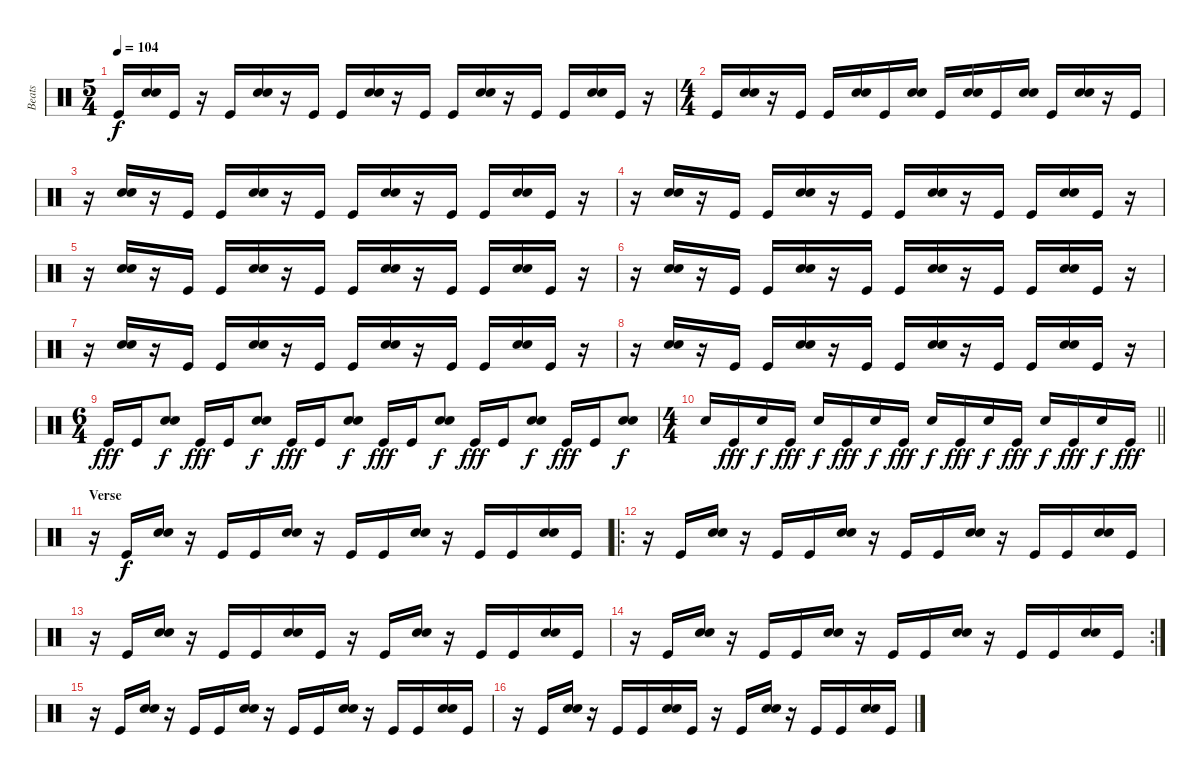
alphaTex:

\track ("Beats" "Beats") {instrument percussion}
\staff {score}
\articulation defaults
\ts (5 4)
\tempo 104
\clef neutral
\ks c "Kick (hit)".16{dy f}
("Snare (hit) 2" "Snare (hit) 2").16 "Kick (hit)".16 r.16 "Kick (hit)".16 ("Snare (hit) 2" "Snare (hit) 2").16 r.16 "Kick (hit)".16 "Kick (hit)".16 ("Snare (hit) 2" "Snare (hit) 2").16 r.16 "Kick (hit)".16 "Kick (hit)".16 ("Snare (hit) 2" "Snare (hit) 2").16 r.16 "Kick (hit)".16 "Kick (hit)".16 ("Snare (hit) 2" "Snare (hit) 2").16 "Kick (hit)".16 r.16 |
\ts (4 4)
"Kick (hit)".16 ("Snare (hit) 2" "Snare (hit) 2").16 r.16 "Kick (hit)".16 "Kick (hit)".16 ("Snare (hit) 2" "Snare (hit) 2").16 "Kick (hit)".16 ("Snare (hit) 2" "Snare (hit) 2").16 "Kick (hit)".16 ("Snare (hit) 2" "Snare (hit) 2").16 "Kick (hit)".16 ("Snare (hit) 2" "Snare (hit) 2").16 "Kick (hit)".16 ("Snare (hit) 2" "Snare (hit) 2").16 r.16 "Kick (hit)".16 |
r.16 ("Snare (hit) 2" "Snare (hit) 2").16 r.16 "Kick (hit)".16 "Kick (hit)".16 ("Snare (hit) 2" "Snare (hit) 2").16 r.16 "Kick (hit)".16 "Kick (hit)".16 ("Snare (hit) 2" "Snare (hit) 2").16 r.16 "Kick (hit)".16 "Kick (hit)".16 ("Snare (hit) 2" "Snare (hit) 2").16 "Kick (hit)".16 r.16 |
r.16 ("Snare (hit) 2" "Snare (hit) 2").16 r.16 "Kick (hit)".16 "Kick (hit)".16 ("Snare (hit) 2" "Snare (hit) 2").16 r.16 "Kick (hit)".16 "Kick (hit)".16 ("Snare (hit) 2" "Snare (hit) 2").16 r.16 "Kick (hit)".16 "Kick (hit)".16 ("Snare (hit) 2" "Snare (hit) 2").16 "Kick (hit)".16 r.16 |
r.16 ("Snare (hit) 2" "Snare (hit) 2").16 r.16 "Kick (hit)".16 "Kick (hit)".16 ("Snare (hit) 2" "Snare (hit) 2").16 r.16 "Kick (hit)".16 "Kick (hit)".16 ("Snare (hit) 2" "Snare (hit) 2").16 r.16 "Kick (hit)".16 "Kick (hit)".16 ("Snare (hit) 2" "Snare (hit) 2").16 "Kick (hit)".16 r.16 |
r.16 ("Snare (hit) 2" "Snare (hit) 2").16 r.16 "Kick (hit)".16 "Kick (hit)".16 ("Snare (hit) 2" "Snare (hit) 2").16 r.16 "Kick (hit)".16 "Kick (hit)".16 ("Snare (hit) 2" "Snare (hit) 2").16 r.16 "Kick (hit)".16 "Kick (hit)".16 ("Snare (hit) 2" "Snare (hit) 2").16 "Kick (hit)".16 r.16 |
r.16 ("Snare (hit) 2" "Snare (hit) 2").16 r.16 "Kick (hit)".16 "Kick (hit)".16 ("Snare (hit) 2" "Snare (hit) 2").16 r.16 "Kick (hit)".16 "Kick (hit)".16 ("Snare (hit) 2" "Snare (hit) 2").16 r.16 "Kick (hit)".16 "Kick (hit)".16 ("Snare (hit) 2" "Snare (hit) 2").16 "Kick (hit)".16 r.16 |
r.16 ("Snare (hit) 2" "Snare (hit) 2").16 r.16 "Kick (hit)".16 "Kick (hit)".16 ("Snare (hit) 2" "Snare (hit) 2").16 r.16 "Kick (hit)".16 "Kick (hit)".16 ("Snare (hit) 2" "Snare (hit) 2").16 r.16 "Kick (hit)".16 "Kick (hit)".16 ("Snare (hit) 2" "Snare (hit) 2").16 "Kick (hit)".16 r.16 |
\ts (6 4)
"Kick (hit)".16{dy fff} "Kick (hit)".16 ("Snare (hit) 2" "Snare (hit) 2").8{dy f} "Kick (hit)".16{dy fff} "Kick (hit)".16 ("Snare (hit) 2" "Snare (hit) 2").8{dy f} "Kick (hit)".16{dy fff} "Kick (hit)".16 ("Snare (hit) 2" "Snare (hit) 2").8{dy f} "Kick (hit)".16{dy fff} "Kick (hit)".16 ("Snare (hit) 2" "Snare (hit) 2").8{dy f} "Kick (hit)".16{dy fff} "Kick (hit)".16 ("Snare (hit) 2" "Snare (hit) 2").8{dy f} "Kick (hit)".16{dy fff} "Kick (hit)".16 ("Snare (hit) 2" "Snare (hit) 2").8{dy f} |
\ts (4 4)
\barLineRight lightlight "Snare (hit) 2".16 "Kick (hit)".16{dy fff} "Snare (hit) 2".16{dy f} "Kick (hit)".16{dy fff} "Snare (hit) 2".16{dy f} "Kick (hit)".16{dy fff} "Snare (hit) 2".16{dy f} "Kick (hit)".16{dy fff} "Snare (hit) 2".16{dy f} "Kick (hit)".16{dy fff} "Snare (hit) 2".16{dy f} "Kick (hit)".16{dy fff} "Snare (hit) 2".16{dy f} "Kick (hit)".16{dy fff} "Snare (hit) 2".16{dy f} "Kick (hit)".16{dy fff}
|
\section ("" "Verse")
r.16 "Kick (hit)".16{dy f} ("Snare (hit) 2" "Snare (hit) 2").16 r.16 "Kick (hit)".16 "Kick (hit)".16 ("Snare (hit) 2" "Snare (hit) 2").16 r.16 "Kick (hit)".16 "Kick (hit)".16 ("Snare (hit) 2" "Snare (hit) 2").16 r.16 "Kick (hit)".16 "Kick (hit)".16 ("Snare (hit) 2" "Snare (hit) 2").16 "Kick (hit)".16 |
\ro
r.16 "Kick (hit)".16 ("Snare (hit) 2" "Snare (hit) 2").16 r.16 "Kick (hit)".16 "Kick (hit)".16 ("Snare (hit) 2" "Snare (hit) 2").16 r.16 "Kick (hit)".16 "Kick (hit)".16 ("Snare (hit) 2" "Snare (hit) 2").16 r.16 "Kick (hit)".16 "Kick (hit)".16 ("Snare (hit) 2" "Snare (hit) 2").16 "Kick (hit)".16 |
r.16 "Kick (hit)".16 ("Snare (hit) 2" "Snare (hit) 2").16 r.16 "Kick (hit)".16 "Kick (hit)".16 ("Snare (hit) 2" "Snare (hit) 2").16 "Kick (hit)".16 r.16 "Kick (hit)".16 ("Snare (hit) 2" "Snare (hit) 2").16 r.16 "Kick (hit)".16 "Kick (hit)".16 ("Snare (hit) 2" "Snare (hit) 2").16 "Kick (hit)".16 |
\rc 2
r.16 "Kick (hit)".16 ("Snare (hit) 2" "Snare (hit) 2").16 r.16 "Kick (hit)".16 "Kick (hit)".16 ("Snare (hit) 2" "Snare (hit) 2").16 r.16 "Kick (hit)".16 "Kick (hit)".16 ("Snare (hit) 2" "Snare (hit) 2").16 r.16 "Kick (hit)".16 "Kick (hit)".16 ("Snare (hit) 2" "Snare (hit) 2").16 "Kick (hit)".16 |
r.16 "Kick (hit)".16 ("Snare (hit) 2" "Snare (hit) 2").16 r.16 "Kick (hit)".16 "Kick (hit)".16 ("Snare (hit) 2" "Snare (hit) 2").16 r.16 "Kick (hit)".16 "Kick (hit)".16 ("Snare (hit) 2" "Snare (hit) 2").16 r.16 "Kick (hit)".16 "Kick (hit)".16 ("Snare (hit) 2" "Snare (hit) 2").16 "Kick (hit)".16 |
r.16 "Kick (hit)".16 ("Snare (hit) 2" "Snare (hit) 2").16 r.16 "Kick (hit)".16 "Kick (hit)".16 ("Snare (hit) 2" "Snare (hit) 2").16 "Kick (hit)".16 r.16 "Kick (hit)".16 ("Snare (hit) 2" "Snare (hit) 2").16 r.16 "Kick (hit)".16 "Kick (hit)".16 ("Snare (hit) 2" "Snare (hit) 2").16 "Kick (hit)".16
